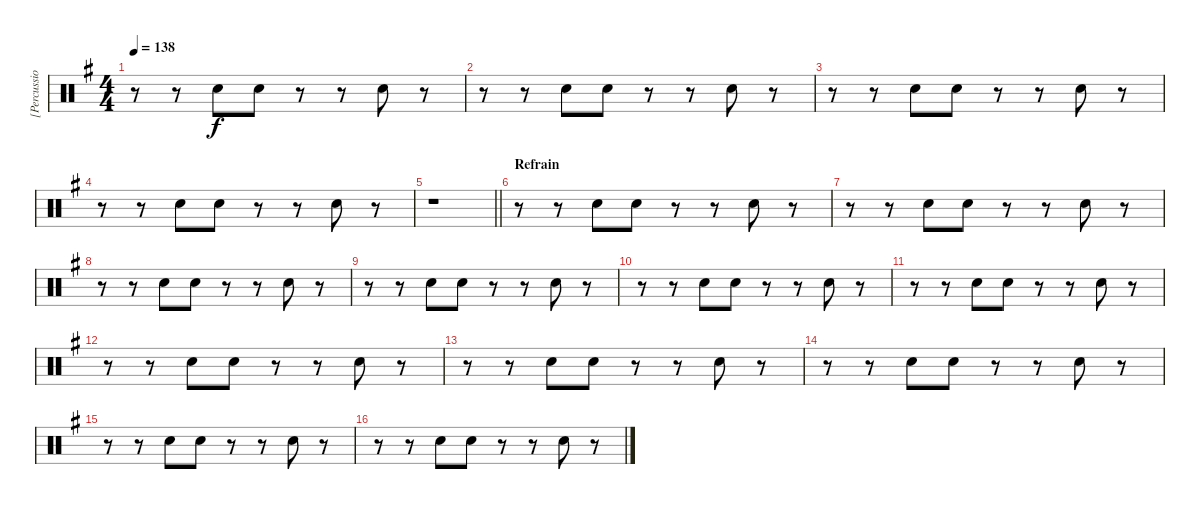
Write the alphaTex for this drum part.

\track ("[Percussion]" "[Percussio") {instrument percussion}
\staff {score}
\articulation defaults
\ts (4 4)
\tempo 138
\clef neutral
\ks eminor
r.8{dy f} r.8 "Hand Clap (hit)".8 "Hand Clap (hit)".8 r.8 r.8 "Hand Clap (hit)".8 r.8 |
r.8 r.8 "Hand Clap (hit)".8 "Hand Clap (hit)".8 r.8 r.8 "Hand Clap (hit)".8 r.8 |
r.8 r.8 "Hand Clap (hit)".8 "Hand Clap (hit)".8 r.8 r.8 "Hand Clap (hit)".8 r.8 |
r.8 r.8 "Hand Clap (hit)".8 "Hand Clap (hit)".8 r.8 r.8 "Hand Clap (hit)".8 r.8 |
\barLineRight lightlight
r.1 |
\section ("" "Refrain")
r.8 r.8 "Hand Clap (hit)".8 "Hand Clap (hit)".8 r.8 r.8 "Hand Clap (hit)".8 r.8 |
r.8 r.8 "Hand Clap (hit)".8 "Hand Clap (hit)".8 r.8 r.8 "Hand Clap (hit)".8 r.8 |
r.8 r.8 "Hand Clap (hit)".8 "Hand Clap (hit)".8 r.8 r.8 "Hand Clap (hit)".8 r.8 |
r.8 r.8 "Hand Clap (hit)".8 "Hand Clap (hit)".8 r.8 r.8 "Hand Clap (hit)".8 r.8 |
r.8 r.8 "Hand Clap (hit)".8 "Hand Clap (hit)".8 r.8 r.8 "Hand Clap (hit)".8 r.8 |
r.8 r.8 "Hand Clap (hit)".8 "Hand Clap (hit)".8 r.8 r.8 "Hand Clap (hit)".8 r.8 |
r.8 r.8 "Hand Clap (hit)".8 "Hand Clap (hit)".8 r.8 r.8 "Hand Clap (hit)".8 r.8 |
r.8 r.8 "Hand Clap (hit)".8 "Hand Clap (hit)".8 r.8 r.8 "Hand Clap (hit)".8 r.8 |
r.8 r.8 "Hand Clap (hit)".8 "Hand Clap (hit)".8 r.8 r.8 "Hand Clap (hit)".8 r.8 |
r.8 r.8 "Hand Clap (hit)".8 "Hand Clap (hit)".8 r.8 r.8 "Hand Clap (hit)".8 r.8 |
r.8 r.8 "Hand Clap (hit)".8 "Hand Clap (hit)".8 r.8 r.8 "Hand Clap (hit)".8 r.8
